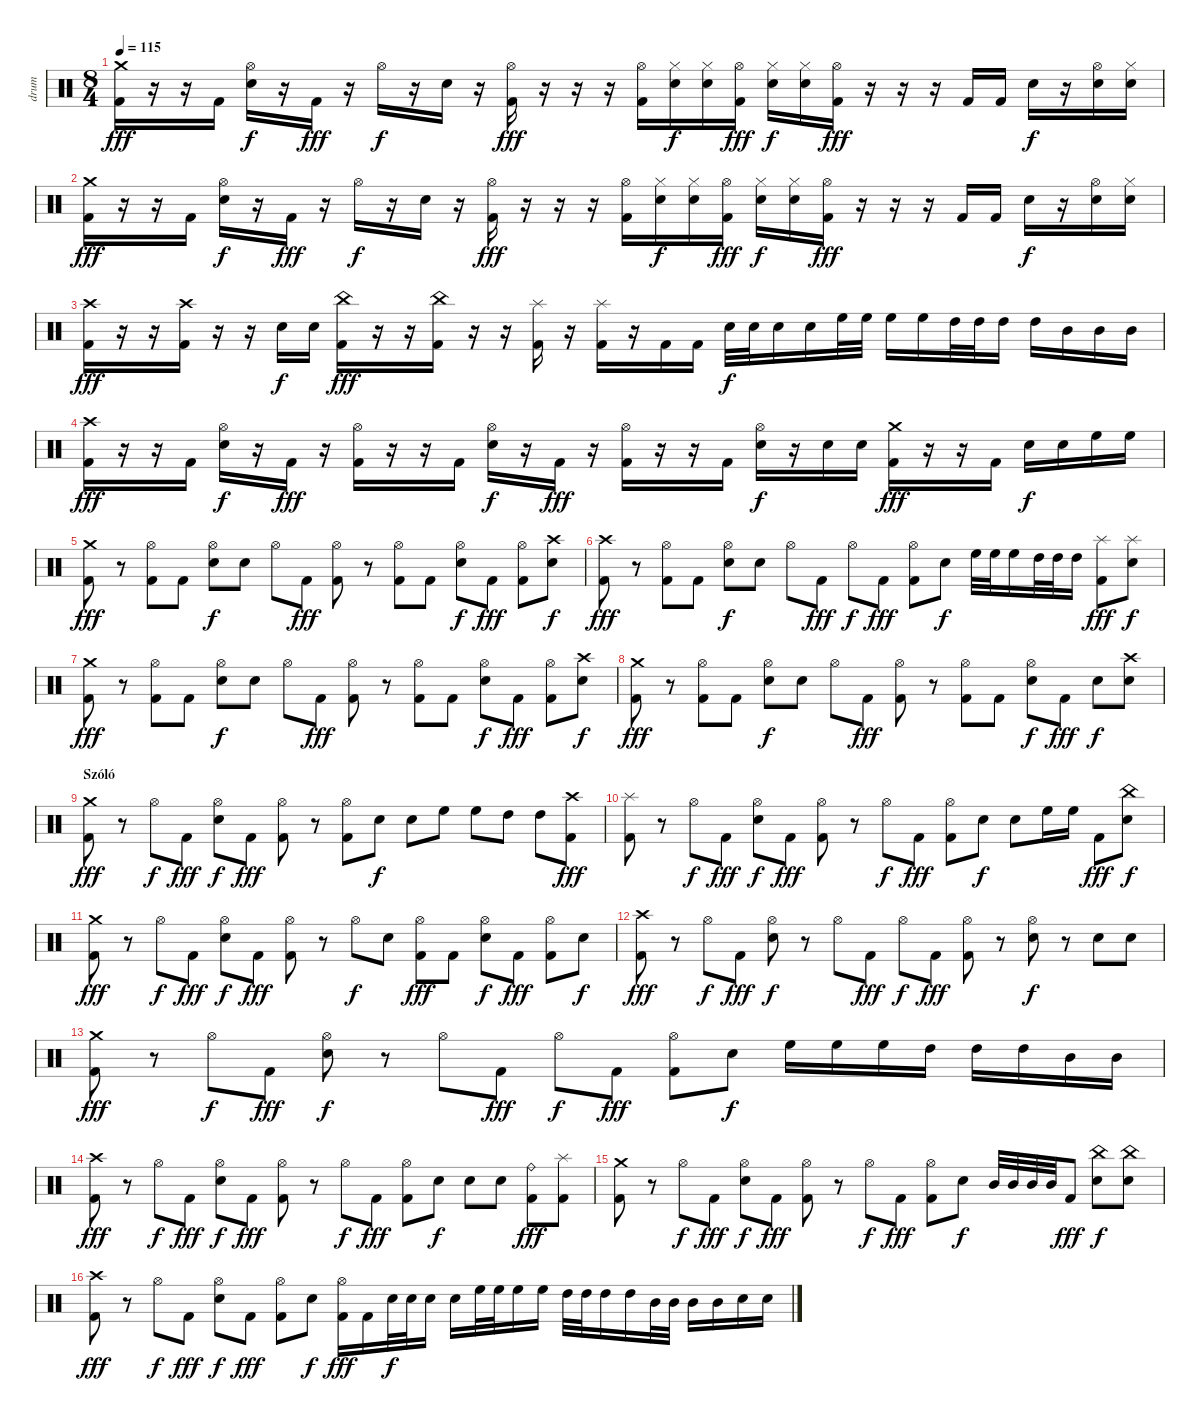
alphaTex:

\track ("drum" "drum") {instrument percussion}
\staff {score}
\articulation defaults
\ts (8 4)
\tempo 115
\clef neutral
\ks c
("Crash medium (hit)" "Kick (hit) 2").16{dy fff} r.16 r.16 "Kick (hit) 2".16 ("Hi-Hat (open)" "Electric Snare (hit)").16{dy f} r.16 "Kick (hit) 2".16{dy fff} r.16 "Hi-Hat (open)".16{dy f} r.16 "Electric Snare (hit)".16 r.16 ("Hi-Hat (open)" "Kick (hit) 2").16{dy fff} r.16 r.16 r.16 ("Hi-Hat (open)" "Kick (hit) 2").16 ("Hi-Hat (closed)" "Electric Snare (hit)").16{dy f} ("Hi-Hat (closed)" "Electric Snare (hit)").16 ("Hi-Hat (open)" "Kick (hit) 2").16{dy fff} ("Hi-Hat (closed)" "Electric Snare (hit)").16{dy f} ("Hi-Hat (closed)" "Electric Snare (hit)").16 ("Hi-Hat (open)" "Kick (hit) 2").16{dy fff} r.16 r.16 r.16 "Kick (hit) 2".16 "Kick (hit) 2".16 "Electric Snare (hit)".16{dy f} r.16 ("Hi-Hat (open)" "Electric Snare (hit)").16 ("Hi-Hat (closed)" "Electric Snare (hit)").16 |
("Crash medium (hit)" "Kick (hit) 2").16{dy fff} r.16 r.16 "Kick (hit) 2".16 ("Hi-Hat (open)" "Electric Snare (hit)").16{dy f} r.16 "Kick (hit) 2".16{dy fff} r.16 "Hi-Hat (open)".16{dy f} r.16 "Electric Snare (hit)".16 r.16 ("Hi-Hat (open)" "Kick (hit) 2").16{dy fff} r.16 r.16 r.16 ("Hi-Hat (open)" "Kick (hit) 2").16 ("Hi-Hat (closed)" "Electric Snare (hit)").16{dy f} ("Hi-Hat (closed)" "Electric Snare (hit)").16 ("Hi-Hat (open)" "Kick (hit) 2").16{dy fff} ("Hi-Hat (closed)" "Electric Snare (hit)").16{dy f} ("Hi-Hat (closed)" "Electric Snare (hit)").16 ("Hi-Hat (open)" "Kick (hit) 2").16{dy fff} r.16 r.16 r.16 "Kick (hit) 2".16 "Kick (hit) 2".16 "Electric Snare (hit)".16{dy f} r.16 ("Hi-Hat (open)" "Electric Snare (hit)").16 ("Hi-Hat (closed)" "Electric Snare (hit)").16 |
("Crash high (hit)" "Kick (hit) 2").16{dy fff} r.16 r.16 ("Crash high (hit)" "Kick (hit) 2").16 r.16 r.16 "Electric Snare (hit)".16{dy f} "Electric Snare (hit)".16 ("China (hit)" "Kick (hit) 2").16{dy fff} r.16 r.16 ("China (hit)" "Kick (hit) 2").16 r.16 r.16 ("Splash (hit)" "Kick (hit) 2").16 r.16 ("Splash (hit)" "Kick (hit) 2").16 r.16 "Kick (hit) 2".16 "Kick (hit) 2".16 "Electric Snare (hit)".32{dy f} "Electric Snare (hit)".32 "Electric Snare (hit)".16 "Electric Snare (hit)".16 "High Floor Tom (hit)".32 "High Floor Tom (hit)".32 "High Floor Tom (hit)".16 "High Floor Tom (hit)".16 "High Tom (hit)".32 "High Tom (hit)".32 "High Tom (hit)".16 "High Tom (hit)".16 "Mid Tom (hit)".16 "Mid Tom (hit)".16 "Mid Tom (hit)".16 |
("Crash high (hit)" "Kick (hit) 2").16{dy fff} r.16 r.16 "Kick (hit) 2".16 ("Hi-Hat (open)" "Electric Snare (hit)").16{dy f} r.16 "Kick (hit) 2".16{dy fff} r.16 ("Hi-Hat (open)" "Kick (hit) 2").16 r.16 r.16 "Kick (hit) 2".16 ("Hi-Hat (open)" "Electric Snare (hit)").16{dy f} r.16 "Kick (hit) 2".16{dy fff} r.16 ("Hi-Hat (open)" "Kick (hit) 2").16 r.16 r.16 "Kick (hit) 2".16 ("Hi-Hat (open)" "Electric Snare (hit)").16{dy f} r.16 "Electric Snare (hit)".16 "Electric Snare (hit)".16 ("Crash medium (hit)" "Kick (hit) 2").16{dy fff} r.16 r.16 "Kick (hit) 2".16 "Electric Snare (hit)".16{dy f} "Electric Snare (hit)".16 "High Floor Tom (hit)".16 "High Floor Tom (hit)".16 |
("Crash medium (hit)" "Kick (hit) 2").8{dy fff} r.8 ("Hi-Hat (open)" "Kick (hit) 2").8 "Kick (hit) 2".8 ("Hi-Hat (open)" "Electric Snare (hit)").8{dy f} "Electric Snare (hit)".8 "Hi-Hat (open)".8 "Kick (hit) 2".8{dy fff} ("Hi-Hat (open)" "Kick (hit) 2").8 r.8 ("Hi-Hat (open)" "Kick (hit) 2").8 "Kick (hit) 2".8 ("Hi-Hat (open)" "Electric Snare (hit)").8{dy f} "Kick (hit) 2".8{dy fff} ("Hi-Hat (open)" "Kick (hit) 2").8 ("Crash high (hit)" "Electric Snare (hit)").8{dy f} |
("Crash high (hit)" "Kick (hit) 2").8{dy fff} r.8 ("Hi-Hat (open)" "Kick (hit) 2").8 "Kick (hit) 2".8 ("Hi-Hat (open)" "Electric Snare (hit)").8{dy f} "Electric Snare (hit)".8 "Hi-Hat (open)".8 "Kick (hit) 2".8{dy fff} "Hi-Hat (open)".8{dy f} "Kick (hit) 2".8{dy fff} ("Hi-Hat (open)" "Kick (hit) 2").8 "Electric Snare (hit)".8{dy f} "High Floor Tom (hit)".32 "High Floor Tom (hit)".32 "High Floor Tom (hit)".16 "High Tom (hit)".32 "High Tom (hit)".32 "High Tom (hit)".16 ("Splash (hit)" "Kick (hit) 2").8{dy fff} ("Splash (hit)" "Electric Snare (hit)").8{dy f} |
("Crash medium (hit)" "Kick (hit) 2").8{dy fff} r.8 ("Hi-Hat (open)" "Kick (hit) 2").8 "Kick (hit) 2".8 ("Hi-Hat (open)" "Electric Snare (hit)").8{dy f} "Electric Snare (hit)".8 "Hi-Hat (open)".8 "Kick (hit) 2".8{dy fff} ("Hi-Hat (open)" "Kick (hit) 2").8 r.8 ("Hi-Hat (open)" "Kick (hit) 2").8 "Kick (hit) 2".8 ("Hi-Hat (open)" "Electric Snare (hit)").8{dy f} "Kick (hit) 2".8{dy fff} ("Hi-Hat (open)" "Kick (hit) 2").8 ("Crash high (hit)" "Electric Snare (hit)").8{dy f} |
("Crash medium (hit)" "Kick (hit) 2").8{dy fff} r.8 ("Hi-Hat (open)" "Kick (hit) 2").8 "Kick (hit) 2".8 ("Hi-Hat (open)" "Electric Snare (hit)").8{dy f} "Electric Snare (hit)".8 "Hi-Hat (open)".8 "Kick (hit) 2".8{dy fff} ("Hi-Hat (open)" "Kick (hit) 2").8 r.8 ("Hi-Hat (open)" "Kick (hit) 2").8 "Kick (hit) 2".8 ("Hi-Hat (open)" "Electric Snare (hit)").8{dy f} "Kick (hit) 2".8{dy fff} "Electric Snare (hit)".8{dy f} ("Crash high (hit)" "Electric Snare (hit)").8 |
\section ("" "Szóló")
("Crash medium (hit)" "Kick (hit) 2").8{dy fff} r.8 "Hi-Hat (open)".8{dy f} "Kick (hit) 2".8{dy fff} ("Hi-Hat (open)" "Electric Snare (hit)").8{dy f} "Kick (hit) 2".8{dy fff} ("Hi-Hat (open)" "Kick (hit) 2").8 r.8 ("Hi-Hat (open)" "Kick (hit) 2").8 "Electric Snare (hit)".8{dy f} "Electric Snare (hit)".8 "High Floor Tom (hit)".8 "High Floor Tom (hit)".8 "High Tom (hit)".8 "High Tom (hit)".8 ("Crash high (hit)" "Kick (hit) 2").8{dy fff} |
("Splash (hit)" "Kick (hit) 2").8 r.8 "Hi-Hat (open)".8{dy f} "Kick (hit) 2".8{dy fff} ("Hi-Hat (open)" "Electric Snare (hit)").8{dy f} "Kick (hit) 2".8{dy fff} ("Hi-Hat (open)" "Kick (hit) 2").8 r.8 "Hi-Hat (open)".8{dy f} "Kick (hit) 2".8{dy fff} ("Hi-Hat (open)" "Kick (hit) 2").8 "Electric Snare (hit)".8{dy f} "Electric Snare (hit)".8 "High Floor Tom (hit)".16 "High Floor Tom (hit)".16 "Kick (hit) 2".8{dy fff} ("China (hit)" "Electric Snare (hit)").8{dy f} |
("Crash medium (hit)" "Kick (hit) 2").8{dy fff} r.8 "Hi-Hat (open)".8{dy f} "Kick (hit) 2".8{dy fff} ("Hi-Hat (open)" "Electric Snare (hit)").8{dy f} "Kick (hit) 2".8{dy fff} ("Hi-Hat (open)" "Kick (hit) 2").8 r.8 "Hi-Hat (open)".8{dy f} "Electric Snare (hit)".8 ("Hi-Hat (open)" "Kick (hit) 2").8{dy fff} "Kick (hit) 2".8 ("Hi-Hat (open)" "Electric Snare (hit)").8{dy f} "Kick (hit) 2".8{dy fff} ("Hi-Hat (open)" "Kick (hit) 2").8 "Electric Snare (hit)".8{dy f} |
("Crash high (hit)" "Kick (hit) 2").8{dy fff} r.8 "Hi-Hat (open)".8{dy f} "Kick (hit) 2".8{dy fff} ("Hi-Hat (open)" "Electric Snare (hit)").8{dy f} r.8 "Hi-Hat (open)".8 "Kick (hit) 2".8{dy fff} "Hi-Hat (open)".8{dy f} "Kick (hit) 2".8{dy fff} ("Hi-Hat (open)" "Kick (hit) 2").8 r.8 ("Hi-Hat (open)" "Electric Snare (hit)").8{dy f} r.8 "Electric Snare (hit)".8 "Electric Snare (hit)".8 |
("Crash medium (hit)" "Kick (hit) 2").8{dy fff} r.8 "Hi-Hat (open)".8{dy f} "Kick (hit) 2".8{dy fff} ("Hi-Hat (open)" "Electric Snare (hit)").8{dy f} r.8 "Hi-Hat (open)".8 "Kick (hit) 2".8{dy fff} "Hi-Hat (open)".8{dy f} "Kick (hit) 2".8{dy fff} ("Hi-Hat (open)" "Kick (hit) 2").8 "Electric Snare (hit)".8{dy f} "High Floor Tom (hit)".16 "High Floor Tom (hit)".16 "High Floor Tom (hit)".16 "High Tom (hit)".16 "High Tom (hit)".16 "High Tom (hit)".16 "Mid Tom (hit)".16 "Mid Tom (hit)".16 |
("Crash high (hit)" "Kick (hit) 2").8{dy fff} r.8 "Hi-Hat (open)".8{dy f} "Kick (hit) 2".8{dy fff} ("Hi-Hat (open)" "Electric Snare (hit)").8{dy f} "Kick (hit) 2".8{dy fff} ("Hi-Hat (open)" "Kick (hit) 2").8 r.8 "Hi-Hat (open)".8{dy f} "Kick (hit) 2".8{dy fff} ("Hi-Hat (open)" "Kick (hit) 2").8 "Electric Snare (hit)".8{dy f} "Electric Snare (hit)".8 "Electric Snare (hit)".8 ("Ride (bell)" "Kick (hit) 2").8{dy fff} ("Splash (hit)" "Kick (hit) 2").8 |
("Crash medium (hit)" "Kick (hit) 2").8 r.8 "Hi-Hat (open)".8{dy f} "Kick (hit) 2".8{dy fff} ("Hi-Hat (open)" "Electric Snare (hit)").8{dy f} "Kick (hit) 2".8{dy fff} ("Hi-Hat (open)" "Kick (hit) 2").8 r.8 "Hi-Hat (open)".8{dy f} "Kick (hit) 2".8{dy fff} ("Hi-Hat (open)" "Kick (hit) 2").8 "Electric Snare (hit)".8{dy f} "Mid Tom (hit)".32 "Mid Tom (hit)".32 "Mid Tom (hit)".32 "Mid Tom (hit)".32 "Kick (hit) 2".8{dy fff} ("China (hit)" "Electric Snare (hit)").8{dy f} ("China (hit)" "Electric Snare (hit)").8 |
("Crash high (hit)" "Kick (hit) 2").8{dy fff} r.8 "Hi-Hat (open)".8{dy f} "Kick (hit) 2".8{dy fff} ("Hi-Hat (open)" "Electric Snare (hit)").8{dy f} "Kick (hit) 2".8{dy fff} ("Hi-Hat (open)" "Kick (hit) 2").8 "Electric Snare (hit)".8{dy f} ("Hi-Hat (open)" "Kick (hit) 2").16{dy fff} "Kick (hit) 2".16 "Electric Snare (hit)".32{dy f} "Electric Snare (hit)".32 "Electric Snare (hit)".16 "Electric Snare (hit)".16 "High Floor Tom (hit)".32 "High Floor Tom (hit)".32 "High Floor Tom (hit)".16 "High Floor Tom (hit)".16 "High Tom (hit)".32 "High Tom (hit)".32 "High Tom (hit)".16 "High Tom (hit)".16 "Mid Tom (hit)".32 "Mid Tom (hit)".32 "Mid Tom (hit)".16 "Mid Tom (hit)".16 "Electric Snare (hit)".16 "Electric Snare (hit)".16
